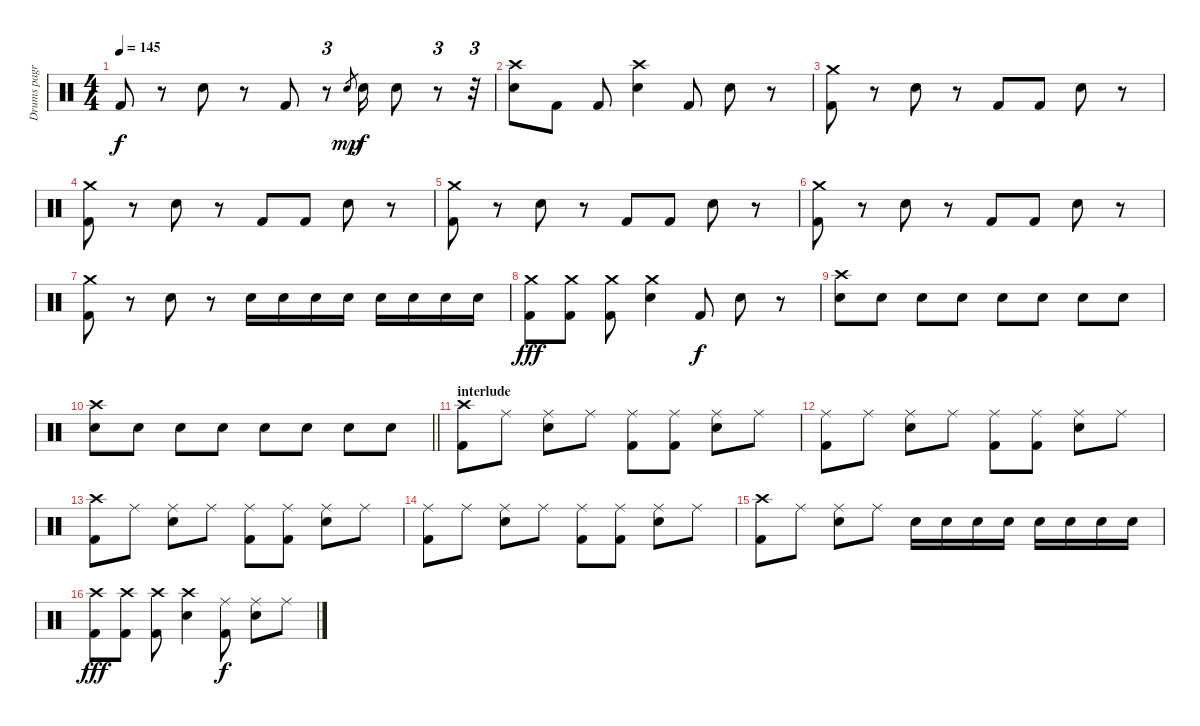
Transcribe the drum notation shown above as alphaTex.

\track ("Drums pagr" "Drums pagr") {instrument percussion}
\staff {score}
\articulation defaults
\ts (4 4)
\tempo 145
\clef neutral
\ks c "Kick (hit) 2".8{dy f}
r.8 "Snare (hit) 2".8 r.8 "Kick (hit) 2".8 r.8{tu (3 2)} "Snare (hit) 2".8{gr dy mp} "Snare (hit) 2".16{dy f} "Snare (hit) 2".8 r.8{tu (3 2)} r.32{tu (3 2)} |
("Crash high (hit)" "Snare (hit) 2").8 "Kick (hit) 2".8 "Kick (hit) 2".8 ("Crash high (hit)" "Snare (hit) 2").4 "Kick (hit) 2".8 "Snare (hit) 2".8 r.8 |
("Crash medium (hit)" "Kick (hit) 2").8 r.8 "Snare (hit) 2".8 r.8 "Kick (hit) 2".8 "Kick (hit) 2".8 "Snare (hit) 2".8 r.8 |
("Crash medium (hit)" "Kick (hit) 2").8 r.8 "Snare (hit) 2".8 r.8 "Kick (hit) 2".8 "Kick (hit) 2".8 "Snare (hit) 2".8 r.8 |
("Crash medium (hit)" "Kick (hit) 2").8 r.8 "Snare (hit) 2".8 r.8 "Kick (hit) 2".8 "Kick (hit) 2".8 "Snare (hit) 2".8 r.8 |
("Crash medium (hit)" "Kick (hit) 2").8 r.8 "Snare (hit) 2".8 r.8 "Kick (hit) 2".8 "Kick (hit) 2".8 "Snare (hit) 2".8 r.8 |
("Crash medium (hit)" "Kick (hit) 2").8 r.8 "Snare (hit) 2".8 r.8 "Snare (hit) 2".16 "Snare (hit) 2".16 "Snare (hit) 2".16 "Snare (hit) 2".16 "Snare (hit) 2".16 "Snare (hit) 2".16 "Snare (hit) 2".16 "Snare (hit) 2".16 |
("Crash medium (hit)" "Kick (hit) 2").8{dy fff} ("Crash medium (hit)" "Kick (hit) 2").8 ("Crash medium (hit)" "Kick (hit) 2").8 ("Crash medium (hit)" "Snare (hit) 2").4 "Kick (hit) 2".8{dy f} "Snare (hit) 2".8 r.8 |
("Crash high (hit)" "Snare (hit) 2").8 "Snare (hit) 2".8 "Snare (hit) 2".8 "Snare (hit) 2".8 "Snare (hit) 2".8 "Snare (hit) 2".8 "Snare (hit) 2".8 "Snare (hit) 2".8 |
\barLineRight lightlight
("Crash high (hit)" "Snare (hit) 2").8 "Snare (hit) 2".8 "Snare (hit) 2".8 "Snare (hit) 2".8 "Snare (hit) 2".8 "Snare (hit) 2".8 "Snare (hit) 2".8 "Snare (hit) 2".8 |
\section ("" "interlude")
("Crash high (hit)" "Kick (hit) 2").8 "Ride (middle)".8 ("Ride (middle)" "Snare (hit) 2").8 "Ride (middle)".8 ("Ride (middle)" "Kick (hit) 2").8 ("Ride (middle)" "Kick (hit) 2").8 ("Ride (middle)" "Snare (hit) 2").8 "Ride (middle)".8 |
("Ride (middle)" "Kick (hit) 2").8 "Ride (middle)".8 ("Ride (middle)" "Snare (hit) 2").8 "Ride (middle)".8 ("Ride (middle)" "Kick (hit) 2").8 ("Ride (middle)" "Kick (hit) 2").8 ("Ride (middle)" "Snare (hit) 2").8 "Ride (middle)".8 |
("Crash high (hit)" "Kick (hit) 2").8 "Ride (middle)".8 ("Ride (middle)" "Snare (hit) 2").8 "Ride (middle)".8 ("Ride (middle)" "Kick (hit) 2").8 ("Ride (middle)" "Kick (hit) 2").8 ("Ride (middle)" "Snare (hit) 2").8 "Ride (middle)".8 |
("Ride (middle)" "Kick (hit) 2").8 "Ride (middle)".8 ("Ride (middle)" "Snare (hit) 2").8 "Ride (middle)".8 ("Ride (middle)" "Kick (hit) 2").8 ("Ride (middle)" "Kick (hit) 2").8 ("Ride (middle)" "Snare (hit) 2").8 "Ride (middle)".8 |
("Crash high (hit)" "Kick (hit) 2").8 "Ride (middle)".8 ("Ride (middle)" "Snare (hit) 2").8 "Ride (middle)".8 "Snare (hit) 2".16 "Snare (hit) 2".16 "Snare (hit) 2".16 "Snare (hit) 2".16 "Snare (hit) 2".16 "Snare (hit) 2".16 "Snare (hit) 2".16 "Snare (hit) 2".16 |
("Crash high (hit)" "Kick (hit) 2").8{dy fff} ("Crash high (hit)" "Kick (hit) 2").8 ("Crash high (hit)" "Kick (hit) 2").8 ("Crash high (hit)" "Snare (hit) 2").4 ("Ride (middle)" "Kick (hit) 2").8{dy f} ("Ride (middle)" "Snare (hit) 2").8 "Ride (middle)".8
